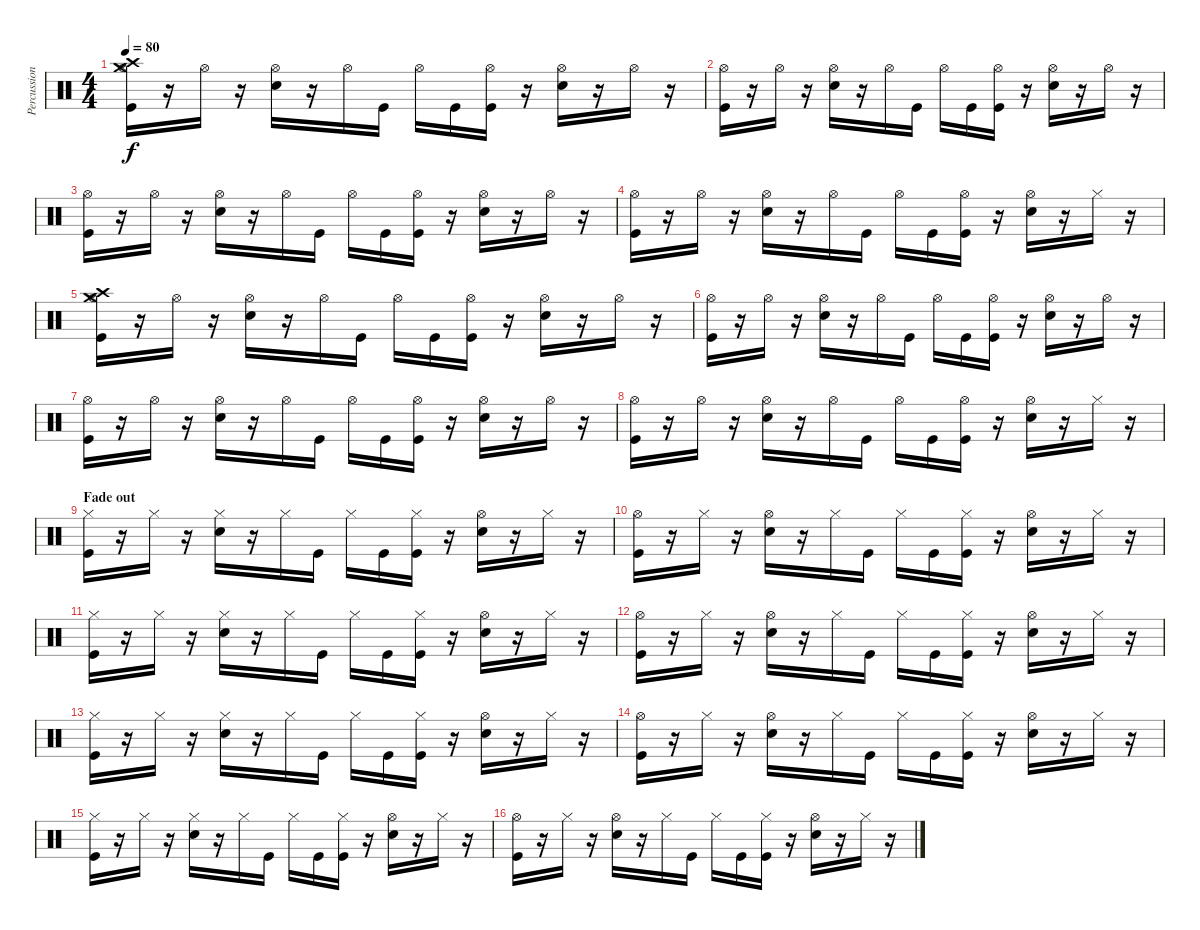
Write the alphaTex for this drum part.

\track ("Percussions" "Percussion") {instrument percussion}
\staff {score}
\articulation defaults
\ts (4 4)
\tempo 80
\clef neutral
\ks c
("Hi-Hat (open)" "Crash high (hit)" "Crash medium (hit)" "Kick (hit)").16{dy f} r.16 "Hi-Hat (open)".16 r.16 ("Hi-Hat (open)" "Electric Snare (hit)").16 r.16 "Hi-Hat (open)".16 "Kick (hit)".16 "Hi-Hat (open)".16 "Kick (hit)".16 ("Hi-Hat (open)" "Kick (hit)").16 r.16 ("Hi-Hat (open)" "Electric Snare (hit)").16 r.16 "Hi-Hat (open)".16 r.16 |
("Hi-Hat (open)" "Kick (hit)").16 r.16 "Hi-Hat (open)".16 r.16 ("Hi-Hat (open)" "Electric Snare (hit)").16 r.16 "Hi-Hat (open)".16 "Kick (hit)".16 "Hi-Hat (open)".16 "Kick (hit)".16 ("Hi-Hat (open)" "Kick (hit)").16 r.16 ("Hi-Hat (open)" "Electric Snare (hit)").16 r.16 "Hi-Hat (open)".16 r.16 |
("Hi-Hat (open)" "Kick (hit)").16 r.16 "Hi-Hat (open)".16 r.16 ("Hi-Hat (open)" "Electric Snare (hit)").16 r.16 "Hi-Hat (open)".16 "Kick (hit)".16 "Hi-Hat (open)".16 "Kick (hit)".16 ("Hi-Hat (open)" "Kick (hit)").16 r.16 ("Hi-Hat (open)" "Electric Snare (hit)").16 r.16 "Hi-Hat (open)".16 r.16 |
("Hi-Hat (open)" "Kick (hit)").16 r.16 "Hi-Hat (open)".16 r.16 ("Hi-Hat (open)" "Electric Snare (hit)").16 r.16 "Hi-Hat (open)".16 "Kick (hit)".16 "Hi-Hat (open)".16 "Kick (hit)".16 ("Hi-Hat (open)" "Kick (hit)").16 r.16 ("Hi-Hat (open)" "Electric Snare (hit)").16 r.16 "Hi-Hat (closed)".16 r.16 |
("Hi-Hat (open)" "Crash high (hit)" "Crash medium (hit)" "Kick (hit)").16 r.16 "Hi-Hat (open)".16 r.16 ("Hi-Hat (open)" "Electric Snare (hit)").16 r.16 "Hi-Hat (open)".16 "Kick (hit)".16 "Hi-Hat (open)".16 "Kick (hit)".16 ("Hi-Hat (open)" "Kick (hit)").16 r.16 ("Hi-Hat (open)" "Electric Snare (hit)").16 r.16 "Hi-Hat (open)".16 r.16 |
("Hi-Hat (open)" "Kick (hit)").16 r.16 "Hi-Hat (open)".16 r.16 ("Hi-Hat (open)" "Electric Snare (hit)").16 r.16 "Hi-Hat (open)".16 "Kick (hit)".16 "Hi-Hat (open)".16 "Kick (hit)".16 ("Hi-Hat (open)" "Kick (hit)").16 r.16 ("Hi-Hat (open)" "Electric Snare (hit)").16 r.16 "Hi-Hat (open)".16 r.16 |
("Hi-Hat (open)" "Kick (hit)").16 r.16 "Hi-Hat (open)".16 r.16 ("Hi-Hat (open)" "Electric Snare (hit)").16 r.16 "Hi-Hat (open)".16 "Kick (hit)".16 "Hi-Hat (open)".16 "Kick (hit)".16 ("Hi-Hat (open)" "Kick (hit)").16 r.16 ("Hi-Hat (open)" "Electric Snare (hit)").16 r.16 "Hi-Hat (open)".16 r.16 |
("Hi-Hat (open)" "Kick (hit)").16 r.16 "Hi-Hat (open)".16 r.16 ("Hi-Hat (open)" "Electric Snare (hit)").16 r.16 "Hi-Hat (open)".16 "Kick (hit)".16 "Hi-Hat (open)".16 "Kick (hit)".16 ("Hi-Hat (open)" "Kick (hit)").16 r.16 ("Hi-Hat (open)" "Electric Snare (hit)").16 r.16 "Hi-Hat (closed)".16 r.16 |
\section ("" "Fade out")
("Hi-Hat (closed)" "Kick (hit)").16 r.16 "Hi-Hat (closed)".16 r.16 ("Hi-Hat (closed)" "Electric Snare (hit)").16 r.16 "Hi-Hat (closed)".16 "Kick (hit)".16 "Hi-Hat (closed)".16 "Kick (hit)".16 ("Hi-Hat (closed)" "Kick (hit)").16 r.16 ("Hi-Hat (open)" "Electric Snare (hit)").16 r.16 "Hi-Hat (closed)".16 r.16 |
("Hi-Hat (open)" "Kick (hit)").16 r.16 "Hi-Hat (closed)".16 r.16 ("Hi-Hat (open)" "Electric Snare (hit)").16 r.16 "Hi-Hat (closed)".16 "Kick (hit)".16 "Hi-Hat (closed)".16 "Kick (hit)".16 ("Hi-Hat (closed)" "Kick (hit)").16 r.16 ("Hi-Hat (open)" "Electric Snare (hit)").16 r.16 "Hi-Hat (closed)".16 r.16 |
("Hi-Hat (closed)" "Kick (hit)").16 r.16 "Hi-Hat (closed)".16 r.16 ("Hi-Hat (closed)" "Electric Snare (hit)").16 r.16 "Hi-Hat (closed)".16 "Kick (hit)".16 "Hi-Hat (closed)".16 "Kick (hit)".16 ("Hi-Hat (closed)" "Kick (hit)").16 r.16 ("Hi-Hat (open)" "Electric Snare (hit)").16 r.16 "Hi-Hat (closed)".16 r.16 |
("Hi-Hat (open)" "Kick (hit)").16 r.16 "Hi-Hat (closed)".16 r.16 ("Hi-Hat (open)" "Electric Snare (hit)").16 r.16 "Hi-Hat (closed)".16 "Kick (hit)".16 "Hi-Hat (closed)".16 "Kick (hit)".16 ("Hi-Hat (closed)" "Kick (hit)").16 r.16 ("Hi-Hat (open)" "Electric Snare (hit)").16 r.16 "Hi-Hat (closed)".16 r.16 |
("Hi-Hat (closed)" "Kick (hit)").16 r.16 "Hi-Hat (closed)".16 r.16 ("Hi-Hat (closed)" "Electric Snare (hit)").16 r.16 "Hi-Hat (closed)".16 "Kick (hit)".16 "Hi-Hat (closed)".16 "Kick (hit)".16 ("Hi-Hat (closed)" "Kick (hit)").16 r.16 ("Hi-Hat (open)" "Electric Snare (hit)").16 r.16 "Hi-Hat (closed)".16 r.16 |
("Hi-Hat (open)" "Kick (hit)").16 r.16 "Hi-Hat (closed)".16 r.16 ("Hi-Hat (open)" "Electric Snare (hit)").16 r.16 "Hi-Hat (closed)".16 "Kick (hit)".16 "Hi-Hat (closed)".16 "Kick (hit)".16 ("Hi-Hat (closed)" "Kick (hit)").16 r.16 ("Hi-Hat (open)" "Electric Snare (hit)").16 r.16 "Hi-Hat (closed)".16 r.16 |
("Hi-Hat (closed)" "Kick (hit)").16 r.16 "Hi-Hat (closed)".16 r.16 ("Hi-Hat (closed)" "Electric Snare (hit)").16 r.16 "Hi-Hat (closed)".16 "Kick (hit)".16 "Hi-Hat (closed)".16 "Kick (hit)".16 ("Hi-Hat (closed)" "Kick (hit)").16 r.16 ("Hi-Hat (open)" "Electric Snare (hit)").16 r.16 "Hi-Hat (closed)".16 r.16 |
("Hi-Hat (open)" "Kick (hit)").16 r.16 "Hi-Hat (closed)".16 r.16 ("Hi-Hat (open)" "Electric Snare (hit)").16 r.16 "Hi-Hat (closed)".16 "Kick (hit)".16 "Hi-Hat (closed)".16 "Kick (hit)".16 ("Hi-Hat (closed)" "Kick (hit)").16 r.16 ("Hi-Hat (open)" "Electric Snare (hit)").16 r.16 "Hi-Hat (closed)".16 r.16
